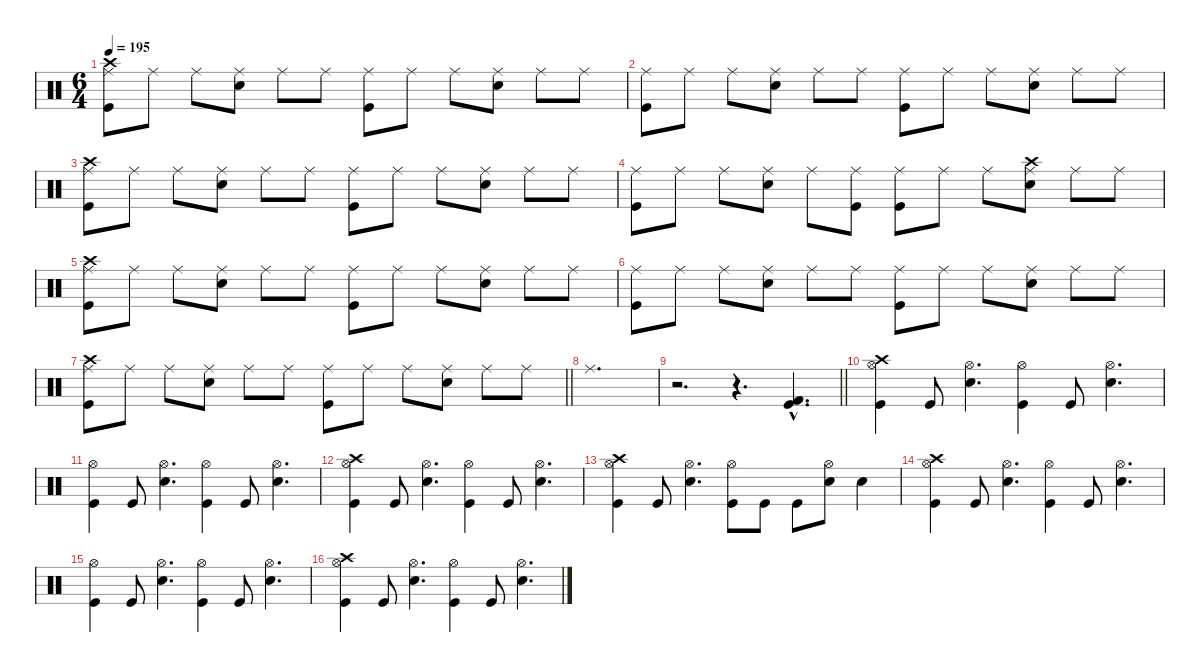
\defaultSystemsLayout 4
\hideDynamics
\bracketExtendMode nobrackets
\singleTrackTrackNamePolicy hidden
\multiTrackTrackNamePolicy hidden
\firstSystemTrackNameMode fullname
\firstSystemTrackNameOrientation horizontal
\otherSystemsTrackNameOrientation horizontal
\track ("Percussion" "drm.") {defaultSystemsLayout 4 instrument percussion}
\staff {score}
\articulation defaults
\ts (6 4)
\tempo 195
\clef neutral
\ks c
("Ride (middle)" "Crash high (hit)" "Kick (hit)").8{dy f beam Down} "Ride (middle)".8{beam Down} "Ride (middle)".8{beam Down} ("Ride (middle)" "Snare (hit) 2").8{beam Down} "Ride (middle)".8{beam Down} "Ride (middle)".8{beam Down} ("Ride (middle)" "Kick (hit)").8{beam Down} "Ride (middle)".8{beam Down} "Ride (middle)".8{beam Down} ("Ride (middle)" "Snare (hit) 2").8{beam Down} "Ride (middle)".8{beam Down} "Ride (middle)".8{beam Down} |
("Ride (middle)" "Kick (hit)").8{beam Down} "Ride (middle)".8{beam Down} "Ride (middle)".8{beam Down} ("Ride (middle)" "Snare (hit) 2").8{beam Down} "Ride (middle)".8{beam Down} "Ride (middle)".8{beam Down} ("Ride (middle)" "Kick (hit)").8{beam Down} "Ride (middle)".8{beam Down} "Ride (middle)".8{beam Down} ("Ride (middle)" "Snare (hit) 2").8{beam Down} "Ride (middle)".8{beam Down} "Ride (middle)".8{beam Down} |
("Ride (middle)" "Crash high (hit)" "Kick (hit)").8{beam Down} "Ride (middle)".8{beam Down} "Ride (middle)".8{beam Down} ("Ride (middle)" "Snare (hit) 2").8{beam Down} "Ride (middle)".8{beam Down} "Ride (middle)".8{beam Down} ("Ride (middle)" "Kick (hit)").8{beam Down} "Ride (middle)".8{beam Down} "Ride (middle)".8{beam Down} ("Ride (middle)" "Snare (hit) 2").8{beam Down} "Ride (middle)".8{beam Down} "Ride (middle)".8{beam Down} |
("Ride (middle)" "Kick (hit)").8{beam Down} "Ride (middle)".8{beam Down} "Ride (middle)".8{beam Down} ("Ride (middle)" "Snare (hit) 2").8{beam Down} "Ride (middle)".8{beam Down} ("Ride (middle)" "Kick (hit)").8{beam Down} ("Ride (middle)" "Kick (hit)").8{beam Down} "Ride (middle)".8{beam Down} "Ride (middle)".8{beam Down} ("Ride (middle)" "Crash high (hit)" "Snare (hit) 2").8{beam Down} "Ride (middle)".8{beam Down} "Ride (middle)".8{beam Down} |
("Ride (middle)" "Crash high (hit)" "Kick (hit)").8{beam Down} "Ride (middle)".8{beam Down} "Ride (middle)".8{beam Down} ("Ride (middle)" "Snare (hit) 2").8{beam Down} "Ride (middle)".8{beam Down} "Ride (middle)".8{beam Down} ("Ride (middle)" "Kick (hit)").8{beam Down} "Ride (middle)".8{beam Down} "Ride (middle)".8{beam Down} ("Ride (middle)" "Snare (hit) 2").8{beam Down} "Ride (middle)".8{beam Down} "Ride (middle)".8{beam Down} |
("Ride (middle)" "Kick (hit)").8{beam Down} "Ride (middle)".8{beam Down} "Ride (middle)".8{beam Down} ("Ride (middle)" "Snare (hit) 2").8{beam Down} "Ride (middle)".8{beam Down} "Ride (middle)".8{beam Down} ("Ride (middle)" "Kick (hit)").8{beam Down} "Ride (middle)".8{beam Down} "Ride (middle)".8{beam Down} ("Ride (middle)" "Snare (hit) 2").8{beam Down} "Ride (middle)".8{beam Down} "Ride (middle)".8{beam Down} |
\barLineRight lightlight
("Ride (middle)" "Crash high (hit)" "Kick (hit)").8{beam Down} "Ride (middle)".8{beam Down} "Ride (middle)".8{beam Down} ("Ride (middle)" "Snare (hit) 2").8{beam Down} "Ride (middle)".8{beam Down} "Ride (middle)".8{beam Down} ("Ride (middle)" "Kick (hit)").8{beam Down} "Ride (middle)".8{beam Down} "Ride (middle)".8{beam Down} ("Ride (middle)" "Snare (hit) 2").8{beam Down} "Ride (middle)".8{beam Down} "Ride (middle)".8{beam Down} |
"Ride (middle)".1{d beam Down} |
\barLineRight lightlight
r.2{d beam Down} r.4{d beam Down} ("Kick (hit) 2"{hac} "Kick (hit)"{hac}).4{d dy fff beam Up} |
("Crash high (hit)" "Hi-Hat (open)" "Kick (hit)").4{dy f beam Down} "Kick (hit)".8{beam Up} ("Hi-Hat (open)" "Snare (hit) 2").4{d beam Down} ("Hi-Hat (open)" "Kick (hit)").4{beam Down} "Kick (hit)".8{beam Up} ("Hi-Hat (open)" "Snare (hit) 2").4{d beam Down} |
("Hi-Hat (open)" "Kick (hit)").4{beam Down} "Kick (hit)".8{beam Up} ("Hi-Hat (open)" "Snare (hit) 2").4{d beam Down} ("Hi-Hat (open)" "Kick (hit)").4{beam Down} "Kick (hit)".8{beam Up} ("Hi-Hat (open)" "Snare (hit) 2").4{d beam Down} |
("Crash high (hit)" "Hi-Hat (open)" "Kick (hit)").4{beam Down} "Kick (hit)".8{beam Up} ("Hi-Hat (open)" "Snare (hit) 2").4{d beam Down} ("Hi-Hat (open)" "Kick (hit)").4{beam Down} "Kick (hit)".8{beam Up} ("Hi-Hat (open)" "Snare (hit) 2").4{d beam Down} |
("Crash high (hit)" "Hi-Hat (open)" "Kick (hit)").4{beam Down} "Kick (hit)".8{beam Up} ("Hi-Hat (open)" "Snare (hit) 2").4{d beam Down} ("Hi-Hat (open)" "Kick (hit)").8{beam Down} "Kick (hit)".8{beam Down} "Kick (hit)".8{beam Down} ("Hi-Hat (open)" "Snare (hit) 2").8{beam Down} "Snare (hit) 2".4{beam Down} |
("Crash high (hit)" "Hi-Hat (open)" "Kick (hit)").4{beam Down} "Kick (hit)".8{beam Up} ("Hi-Hat (open)" "Snare (hit) 2").4{d beam Down} ("Hi-Hat (open)" "Kick (hit)").4{beam Down} "Kick (hit)".8{beam Up} ("Hi-Hat (open)" "Snare (hit) 2").4{d beam Down} |
("Hi-Hat (open)" "Kick (hit)").4{beam Down} "Kick (hit)".8{beam Up} ("Hi-Hat (open)" "Snare (hit) 2").4{d beam Down} ("Hi-Hat (open)" "Kick (hit)").4{beam Down} "Kick (hit)".8{beam Up} ("Hi-Hat (open)" "Snare (hit) 2").4{d beam Down} |
("Crash high (hit)" "Hi-Hat (open)" "Kick (hit)").4{beam Down} "Kick (hit)".8{beam Up} ("Hi-Hat (open)" "Snare (hit) 2").4{d beam Down} ("Hi-Hat (open)" "Kick (hit)").4{beam Down} "Kick (hit)".8{beam Up} ("Hi-Hat (open)" "Snare (hit) 2").4{d beam Down}
